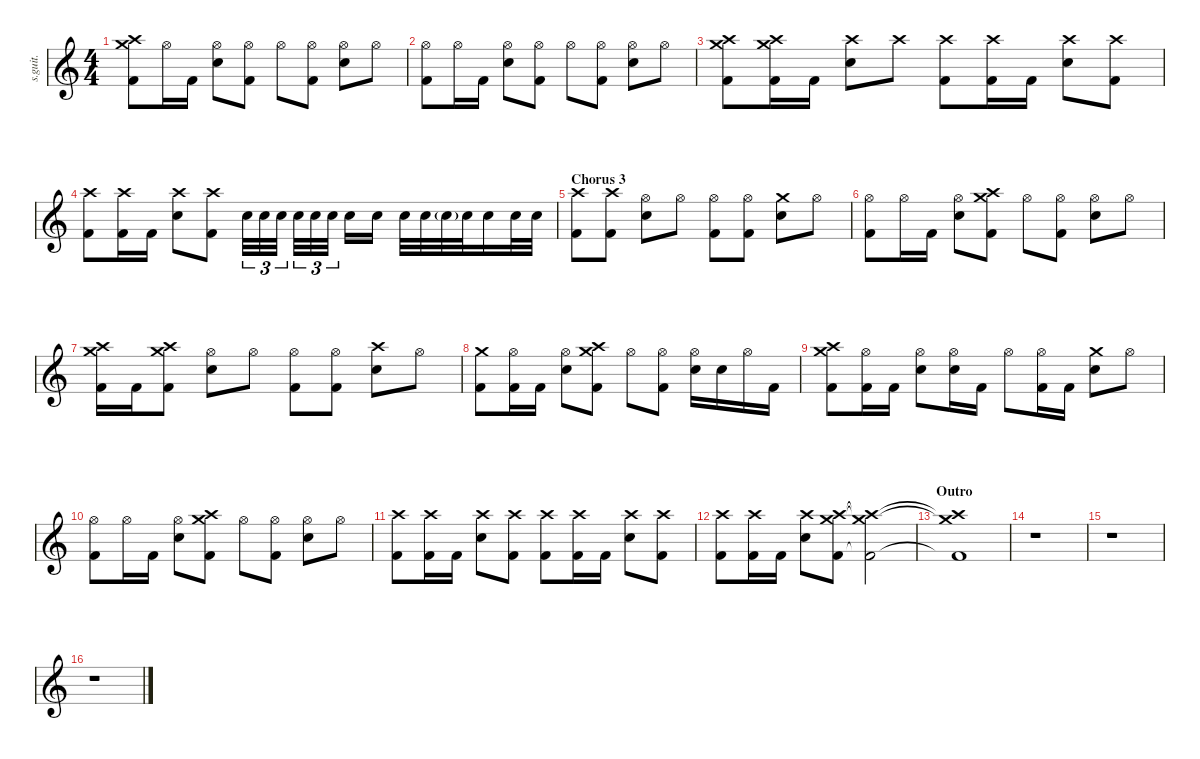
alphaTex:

\defaultSystemsLayout 4
\hideDynamics
\bracketExtendMode nobrackets
\track ("Drums (Pat Wilson)" "s.guit.") {instrument percussion}
\staff {score}
\articulation defaults
\ts (4 4)
\tempo (76 hide)
\clef g2
\ks c
("Crash high (hit)" "Crash medium (hit)" "Kick (hit) 2").8{lyrics (0 "") lyrics (1 "") lyrics (2 "") lyrics (3 "") lyrics (4 "") lyrics (5 "") lyrics (6 "") lyrics (7 "") lyrics (8 "") lyrics (9 "") dy f} "Hi-Hat (open)".16{lyrics (0 "") lyrics (1 "") lyrics (2 "") lyrics (3 "") lyrics (4 "") lyrics (5 "") lyrics (6 "") lyrics (7 "") lyrics (8 "") lyrics (9 "")} "Kick (hit) 2".16{lyrics (0 "") lyrics (1 "") lyrics (2 "") lyrics (3 "") lyrics (4 "") lyrics (5 "") lyrics (6 "") lyrics (7 "") lyrics (8 "") lyrics (9 "")} ("Hi-Hat (open)" "Snare (hit) 2").8{lyrics (0 "") lyrics (1 "") lyrics (2 "") lyrics (3 "") lyrics (4 "") lyrics (5 "") lyrics (6 "") lyrics (7 "") lyrics (8 "") lyrics (9 "")} ("Hi-Hat (open)" "Kick (hit) 2").8{lyrics (0 "") lyrics (1 "") lyrics (2 "") lyrics (3 "") lyrics (4 "") lyrics (5 "") lyrics (6 "") lyrics (7 "") lyrics (8 "") lyrics (9 "")} "Hi-Hat (open)".8{lyrics (0 "") lyrics (1 "") lyrics (2 "") lyrics (3 "") lyrics (4 "") lyrics (5 "") lyrics (6 "") lyrics (7 "") lyrics (8 "") lyrics (9 "")} ("Hi-Hat (open)" "Kick (hit) 2").8{lyrics (0 "") lyrics (1 "") lyrics (2 "") lyrics (3 "") lyrics (4 "") lyrics (5 "") lyrics (6 "") lyrics (7 "") lyrics (8 "") lyrics (9 "")} ("Hi-Hat (open)" "Snare (hit) 2").8{lyrics (0 "") lyrics (1 "") lyrics (2 "") lyrics (3 "") lyrics (4 "") lyrics (5 "") lyrics (6 "") lyrics (7 "") lyrics (8 "") lyrics (9 "")} "Hi-Hat (open)".8{lyrics (0 "") lyrics (1 "") lyrics (2 "") lyrics (3 "") lyrics (4 "") lyrics (5 "") lyrics (6 "") lyrics (7 "") lyrics (8 "") lyrics (9 "")} |
("Hi-Hat (open)" "Kick (hit) 2").8{lyrics (0 "") lyrics (1 "") lyrics (2 "") lyrics (3 "") lyrics (4 "") lyrics (5 "") lyrics (6 "") lyrics (7 "") lyrics (8 "") lyrics (9 "")} "Hi-Hat (open)".16{lyrics (0 "") lyrics (1 "") lyrics (2 "") lyrics (3 "") lyrics (4 "") lyrics (5 "") lyrics (6 "") lyrics (7 "") lyrics (8 "") lyrics (9 "")} "Kick (hit) 2".16{lyrics (0 "") lyrics (1 "") lyrics (2 "") lyrics (3 "") lyrics (4 "") lyrics (5 "") lyrics (6 "") lyrics (7 "") lyrics (8 "") lyrics (9 "")} ("Hi-Hat (open)" "Snare (hit) 2").8{lyrics (0 "") lyrics (1 "") lyrics (2 "") lyrics (3 "") lyrics (4 "") lyrics (5 "") lyrics (6 "") lyrics (7 "") lyrics (8 "") lyrics (9 "")} ("Hi-Hat (open)" "Kick (hit) 2").8{lyrics (0 "") lyrics (1 "") lyrics (2 "") lyrics (3 "") lyrics (4 "") lyrics (5 "") lyrics (6 "") lyrics (7 "") lyrics (8 "") lyrics (9 "")} "Hi-Hat (open)".8{lyrics (0 "") lyrics (1 "") lyrics (2 "") lyrics (3 "") lyrics (4 "") lyrics (5 "") lyrics (6 "") lyrics (7 "") lyrics (8 "") lyrics (9 "")} ("Hi-Hat (open)" "Kick (hit) 2").8{lyrics (0 "") lyrics (1 "") lyrics (2 "") lyrics (3 "") lyrics (4 "") lyrics (5 "") lyrics (6 "") lyrics (7 "") lyrics (8 "") lyrics (9 "")} ("Hi-Hat (open)" "Snare (hit) 2").8{lyrics (0 "") lyrics (1 "") lyrics (2 "") lyrics (3 "") lyrics (4 "") lyrics (5 "") lyrics (6 "") lyrics (7 "") lyrics (8 "") lyrics (9 "")} "Hi-Hat (open)".8{lyrics (0 "") lyrics (1 "") lyrics (2 "") lyrics (3 "") lyrics (4 "") lyrics (5 "") lyrics (6 "") lyrics (7 "") lyrics (8 "") lyrics (9 "")} |
("Crash high (hit)" "Crash medium (hit)" "Kick (hit) 2").8{lyrics (0 "") lyrics (1 "") lyrics (2 "") lyrics (3 "") lyrics (4 "") lyrics (5 "") lyrics (6 "") lyrics (7 "") lyrics (8 "") lyrics (9 "")} ("Crash high (hit)" "Crash medium (hit)" "Kick (hit) 2").16{lyrics (0 "") lyrics (1 "") lyrics (2 "") lyrics (3 "") lyrics (4 "") lyrics (5 "") lyrics (6 "") lyrics (7 "") lyrics (8 "") lyrics (9 "")} "Kick (hit) 2".16{lyrics (0 "") lyrics (1 "") lyrics (2 "") lyrics (3 "") lyrics (4 "") lyrics (5 "") lyrics (6 "") lyrics (7 "") lyrics (8 "") lyrics (9 "")} ("Crash high (hit)" "Snare (hit) 2").8{lyrics (0 "") lyrics (1 "") lyrics (2 "") lyrics (3 "") lyrics (4 "") lyrics (5 "") lyrics (6 "") lyrics (7 "") lyrics (8 "") lyrics (9 "")} "Crash high (hit)".8{lyrics (0 "") lyrics (1 "") lyrics (2 "") lyrics (3 "") lyrics (4 "") lyrics (5 "") lyrics (6 "") lyrics (7 "") lyrics (8 "") lyrics (9 "")} ("Crash high (hit)" "Kick (hit) 2").8{lyrics (0 "") lyrics (1 "") lyrics (2 "") lyrics (3 "") lyrics (4 "") lyrics (5 "") lyrics (6 "") lyrics (7 "") lyrics (8 "") lyrics (9 "")} ("Crash high (hit)" "Kick (hit) 2").16{lyrics (0 "") lyrics (1 "") lyrics (2 "") lyrics (3 "") lyrics (4 "") lyrics (5 "") lyrics (6 "") lyrics (7 "") lyrics (8 "") lyrics (9 "")} "Kick (hit) 2".16{lyrics (0 "") lyrics (1 "") lyrics (2 "") lyrics (3 "") lyrics (4 "") lyrics (5 "") lyrics (6 "") lyrics (7 "") lyrics (8 "") lyrics (9 "")} ("Crash high (hit)" "Snare (hit) 2").8{lyrics (0 "") lyrics (1 "") lyrics (2 "") lyrics (3 "") lyrics (4 "") lyrics (5 "") lyrics (6 "") lyrics (7 "") lyrics (8 "") lyrics (9 "")} ("Crash high (hit)" "Kick (hit) 2").8{lyrics (0 "") lyrics (1 "") lyrics (2 "") lyrics (3 "") lyrics (4 "") lyrics (5 "") lyrics (6 "") lyrics (7 "") lyrics (8 "") lyrics (9 "")} |
("Crash high (hit)" "Kick (hit) 2").8{lyrics (0 "") lyrics (1 "") lyrics (2 "") lyrics (3 "") lyrics (4 "") lyrics (5 "") lyrics (6 "") lyrics (7 "") lyrics (8 "") lyrics (9 "")} ("Crash high (hit)" "Kick (hit) 2").16{lyrics (0 "") lyrics (1 "") lyrics (2 "") lyrics (3 "") lyrics (4 "") lyrics (5 "") lyrics (6 "") lyrics (7 "") lyrics (8 "") lyrics (9 "")} "Kick (hit) 2".16{lyrics (0 "") lyrics (1 "") lyrics (2 "") lyrics (3 "") lyrics (4 "") lyrics (5 "") lyrics (6 "") lyrics (7 "") lyrics (8 "") lyrics (9 "")} ("Crash high (hit)" "Snare (hit) 2").8{lyrics (0 "") lyrics (1 "") lyrics (2 "") lyrics (3 "") lyrics (4 "") lyrics (5 "") lyrics (6 "") lyrics (7 "") lyrics (8 "") lyrics (9 "")} ("Crash high (hit)" "Kick (hit) 2").8{lyrics (0 "") lyrics (1 "") lyrics (2 "") lyrics (3 "") lyrics (4 "") lyrics (5 "") lyrics (6 "") lyrics (7 "") lyrics (8 "") lyrics (9 "")} "Snare (hit) 2".32{tu (3 2) lyrics (0 "") lyrics (1 "") lyrics (2 "") lyrics (3 "") lyrics (4 "") lyrics (5 "") lyrics (6 "") lyrics (7 "") lyrics (8 "") lyrics (9 "") dy ff} "Snare (hit) 2".32{tu (3 2) lyrics (0 "") lyrics (1 "") lyrics (2 "") lyrics (3 "") lyrics (4 "") lyrics (5 "") lyrics (6 "") lyrics (7 "") lyrics (8 "") lyrics (9 "")} "Snare (hit) 2".32{tu (3 2) lyrics (0 "") lyrics (1 "") lyrics (2 "") lyrics (3 "") lyrics (4 "") lyrics (5 "") lyrics (6 "") lyrics (7 "") lyrics (8 "") lyrics (9 "")} "Snare (hit) 2".32{tu (3 2) lyrics (0 "") lyrics (1 "") lyrics (2 "") lyrics (3 "") lyrics (4 "") lyrics (5 "") lyrics (6 "") lyrics (7 "") lyrics (8 "") lyrics (9 "")} "Snare (hit) 2".32{tu (3 2) lyrics (0 "") lyrics (1 "") lyrics (2 "") lyrics (3 "") lyrics (4 "") lyrics (5 "") lyrics (6 "") lyrics (7 "") lyrics (8 "") lyrics (9 "")} "Snare (hit) 2".32{tu (3 2) lyrics (0 "") lyrics (1 "") lyrics (2 "") lyrics (3 "") lyrics (4 "") lyrics (5 "") lyrics (6 "") lyrics (7 "") lyrics (8 "") lyrics (9 "")} "Snare (hit) 2".16{lyrics (0 "") lyrics (1 "") lyrics (2 "") lyrics (3 "") lyrics (4 "") lyrics (5 "") lyrics (6 "") lyrics (7 "") lyrics (8 "") lyrics (9 "")} "Snare (hit) 2".16{lyrics (0 "") lyrics (1 "") lyrics (2 "") lyrics (3 "") lyrics (4 "") lyrics (5 "") lyrics (6 "") lyrics (7 "") lyrics (8 "") lyrics (9 "")} "Snare (hit) 2".32{lyrics (0 "") lyrics (1 "") lyrics (2 "") lyrics (3 "") lyrics (4 "") lyrics (5 "") lyrics (6 "") lyrics (7 "") lyrics (8 "") lyrics (9 "")} "Snare (hit) 2".32{lyrics (0 "") lyrics (1 "") lyrics (2 "") lyrics (3 "") lyrics (4 "") lyrics (5 "") lyrics (6 "") lyrics (7 "") lyrics (8 "") lyrics (9 "")} "Snare (hit) 2"{g}.32{lyrics (0 "") lyrics (1 "") lyrics (2 "") lyrics (3 "") lyrics (4 "") lyrics (5 "") lyrics (6 "") lyrics (7 "") lyrics (8 "") lyrics (9 "") dy mp} "Snare (hit) 2".32{lyrics (0 "") lyrics (1 "") lyrics (2 "") lyrics (3 "") lyrics (4 "") lyrics (5 "") lyrics (6 "") lyrics (7 "") lyrics (8 "") lyrics (9 "") dy ff} "Snare (hit) 2".16{lyrics (0 "") lyrics (1 "") lyrics (2 "") lyrics (3 "") lyrics (4 "") lyrics (5 "") lyrics (6 "") lyrics (7 "") lyrics (8 "") lyrics (9 "")} "Snare (hit) 2".32{lyrics (0 "") lyrics (1 "") lyrics (2 "") lyrics (3 "") lyrics (4 "") lyrics (5 "") lyrics (6 "") lyrics (7 "") lyrics (8 "") lyrics (9 "")} "Snare (hit) 2".32{lyrics (0 "") lyrics (1 "") lyrics (2 "") lyrics (3 "") lyrics (4 "") lyrics (5 "") lyrics (6 "") lyrics (7 "") lyrics (8 "") lyrics (9 "")} |
\section ("" "Chorus 3")
("Crash high (hit)" "Kick (hit) 2").8{lyrics (0 "") lyrics (1 "") lyrics (2 "") lyrics (3 "") lyrics (4 "") lyrics (5 "") lyrics (6 "") lyrics (7 "") lyrics (8 "") lyrics (9 "") dy f} ("Crash high (hit)" "Kick (hit) 2").8{lyrics (0 "") lyrics (1 "") lyrics (2 "") lyrics (3 "") lyrics (4 "") lyrics (5 "") lyrics (6 "") lyrics (7 "") lyrics (8 "") lyrics (9 "")} ("Hi-Hat (open)" "Snare (hit) 2").8{lyrics (0 "") lyrics (1 "") lyrics (2 "") lyrics (3 "") lyrics (4 "") lyrics (5 "") lyrics (6 "") lyrics (7 "") lyrics (8 "") lyrics (9 "")} "Hi-Hat (open)".8{lyrics (0 "") lyrics (1 "") lyrics (2 "") lyrics (3 "") lyrics (4 "") lyrics (5 "") lyrics (6 "") lyrics (7 "") lyrics (8 "") lyrics (9 "")} ("Hi-Hat (open)" "Kick (hit) 2").8{lyrics (0 "") lyrics (1 "") lyrics (2 "") lyrics (3 "") lyrics (4 "") lyrics (5 "") lyrics (6 "") lyrics (7 "") lyrics (8 "") lyrics (9 "")} ("Hi-Hat (open)" "Kick (hit) 2").8{lyrics (0 "") lyrics (1 "") lyrics (2 "") lyrics (3 "") lyrics (4 "") lyrics (5 "") lyrics (6 "") lyrics (7 "") lyrics (8 "") lyrics (9 "")} ("Crash medium (hit)" "Snare (hit) 2").8{lyrics (0 "") lyrics (1 "") lyrics (2 "") lyrics (3 "") lyrics (4 "") lyrics (5 "") lyrics (6 "") lyrics (7 "") lyrics (8 "") lyrics (9 "")} "Hi-Hat (open)".8{lyrics (0 "") lyrics (1 "") lyrics (2 "") lyrics (3 "") lyrics (4 "") lyrics (5 "") lyrics (6 "") lyrics (7 "") lyrics (8 "") lyrics (9 "")} |
("Hi-Hat (open)" "Kick (hit) 2").8{lyrics (0 "") lyrics (1 "") lyrics (2 "") lyrics (3 "") lyrics (4 "") lyrics (5 "") lyrics (6 "") lyrics (7 "") lyrics (8 "") lyrics (9 "")} "Hi-Hat (open)".16{lyrics (0 "") lyrics (1 "") lyrics (2 "") lyrics (3 "") lyrics (4 "") lyrics (5 "") lyrics (6 "") lyrics (7 "") lyrics (8 "") lyrics (9 "")} "Kick (hit) 2".16{lyrics (0 "") lyrics (1 "") lyrics (2 "") lyrics (3 "") lyrics (4 "") lyrics (5 "") lyrics (6 "") lyrics (7 "") lyrics (8 "") lyrics (9 "")} ("Hi-Hat (open)" "Snare (hit) 2").8{lyrics (0 "") lyrics (1 "") lyrics (2 "") lyrics (3 "") lyrics (4 "") lyrics (5 "") lyrics (6 "") lyrics (7 "") lyrics (8 "") lyrics (9 "")} ("Crash high (hit)" "Crash medium (hit)" "Kick (hit) 2").8{lyrics (0 "") lyrics (1 "") lyrics (2 "") lyrics (3 "") lyrics (4 "") lyrics (5 "") lyrics (6 "") lyrics (7 "") lyrics (8 "") lyrics (9 "")} "Hi-Hat (open)".8{lyrics (0 "") lyrics (1 "") lyrics (2 "") lyrics (3 "") lyrics (4 "") lyrics (5 "") lyrics (6 "") lyrics (7 "") lyrics (8 "") lyrics (9 "")} ("Hi-Hat (open)" "Kick (hit) 2").8{lyrics (0 "") lyrics (1 "") lyrics (2 "") lyrics (3 "") lyrics (4 "") lyrics (5 "") lyrics (6 "") lyrics (7 "") lyrics (8 "") lyrics (9 "")} ("Hi-Hat (open)" "Snare (hit) 2").8{lyrics (0 "") lyrics (1 "") lyrics (2 "") lyrics (3 "") lyrics (4 "") lyrics (5 "") lyrics (6 "") lyrics (7 "") lyrics (8 "") lyrics (9 "")} "Hi-Hat (open)".8{lyrics (0 "") lyrics (1 "") lyrics (2 "") lyrics (3 "") lyrics (4 "") lyrics (5 "") lyrics (6 "") lyrics (7 "") lyrics (8 "") lyrics (9 "")} |
("Crash high (hit)" "Crash medium (hit)" "Kick (hit) 2").16{lyrics (0 "") lyrics (1 "") lyrics (2 "") lyrics (3 "") lyrics (4 "") lyrics (5 "") lyrics (6 "") lyrics (7 "") lyrics (8 "") lyrics (9 "")} "Kick (hit) 2".16{lyrics (0 "") lyrics (1 "") lyrics (2 "") lyrics (3 "") lyrics (4 "") lyrics (5 "") lyrics (6 "") lyrics (7 "") lyrics (8 "") lyrics (9 "")} ("Crash high (hit)" "Crash medium (hit)" "Kick (hit) 2").8{lyrics (0 "") lyrics (1 "") lyrics (2 "") lyrics (3 "") lyrics (4 "") lyrics (5 "") lyrics (6 "") lyrics (7 "") lyrics (8 "") lyrics (9 "")} ("Hi-Hat (open)" "Snare (hit) 2").8{lyrics (0 "") lyrics (1 "") lyrics (2 "") lyrics (3 "") lyrics (4 "") lyrics (5 "") lyrics (6 "") lyrics (7 "") lyrics (8 "") lyrics (9 "")} "Hi-Hat (open)".8{lyrics (0 "") lyrics (1 "") lyrics (2 "") lyrics (3 "") lyrics (4 "") lyrics (5 "") lyrics (6 "") lyrics (7 "") lyrics (8 "") lyrics (9 "")} ("Hi-Hat (open)" "Kick (hit) 2").8{lyrics (0 "") lyrics (1 "") lyrics (2 "") lyrics (3 "") lyrics (4 "") lyrics (5 "") lyrics (6 "") lyrics (7 "") lyrics (8 "") lyrics (9 "")} ("Hi-Hat (open)" "Kick (hit) 2").8{lyrics (0 "") lyrics (1 "") lyrics (2 "") lyrics (3 "") lyrics (4 "") lyrics (5 "") lyrics (6 "") lyrics (7 "") lyrics (8 "") lyrics (9 "")} ("Crash high (hit)" "Snare (hit) 2").8{lyrics (0 "") lyrics (1 "") lyrics (2 "") lyrics (3 "") lyrics (4 "") lyrics (5 "") lyrics (6 "") lyrics (7 "") lyrics (8 "") lyrics (9 "")} "Hi-Hat (open)".8{lyrics (0 "") lyrics (1 "") lyrics (2 "") lyrics (3 "") lyrics (4 "") lyrics (5 "") lyrics (6 "") lyrics (7 "") lyrics (8 "") lyrics (9 "")} |
("Crash medium (hit)" "Kick (hit) 2").8{lyrics (0 "") lyrics (1 "") lyrics (2 "") lyrics (3 "") lyrics (4 "") lyrics (5 "") lyrics (6 "") lyrics (7 "") lyrics (8 "") lyrics (9 "")} ("Hi-Hat (open)" "Kick (hit) 2").16{lyrics (0 "") lyrics (1 "") lyrics (2 "") lyrics (3 "") lyrics (4 "") lyrics (5 "") lyrics (6 "") lyrics (7 "") lyrics (8 "") lyrics (9 "")} "Kick (hit) 2".16{lyrics (0 "") lyrics (1 "") lyrics (2 "") lyrics (3 "") lyrics (4 "") lyrics (5 "") lyrics (6 "") lyrics (7 "") lyrics (8 "") lyrics (9 "")} ("Hi-Hat (open)" "Snare (hit) 2").8{lyrics (0 "") lyrics (1 "") lyrics (2 "") lyrics (3 "") lyrics (4 "") lyrics (5 "") lyrics (6 "") lyrics (7 "") lyrics (8 "") lyrics (9 "")} ("Crash high (hit)" "Crash medium (hit)" "Kick (hit) 2").8{lyrics (0 "") lyrics (1 "") lyrics (2 "") lyrics (3 "") lyrics (4 "") lyrics (5 "") lyrics (6 "") lyrics (7 "") lyrics (8 "") lyrics (9 "")} "Hi-Hat (open)".8{lyrics (0 "") lyrics (1 "") lyrics (2 "") lyrics (3 "") lyrics (4 "") lyrics (5 "") lyrics (6 "") lyrics (7 "") lyrics (8 "") lyrics (9 "")} ("Hi-Hat (open)" "Kick (hit) 2").8{lyrics (0 "") lyrics (1 "") lyrics (2 "") lyrics (3 "") lyrics (4 "") lyrics (5 "") lyrics (6 "") lyrics (7 "") lyrics (8 "") lyrics (9 "")} ("Hi-Hat (open)" "Snare (hit) 2").16{lyrics (0 "") lyrics (1 "") lyrics (2 "") lyrics (3 "") lyrics (4 "") lyrics (5 "") lyrics (6 "") lyrics (7 "") lyrics (8 "") lyrics (9 "")} "Snare (hit) 2".16{lyrics (0 "") lyrics (1 "") lyrics (2 "") lyrics (3 "") lyrics (4 "") lyrics (5 "") lyrics (6 "") lyrics (7 "") lyrics (8 "") lyrics (9 "")} "Hi-Hat (open)".16{lyrics (0 "") lyrics (1 "") lyrics (2 "") lyrics (3 "") lyrics (4 "") lyrics (5 "") lyrics (6 "") lyrics (7 "") lyrics (8 "") lyrics (9 "")} "Kick (hit) 2".16{lyrics (0 "") lyrics (1 "") lyrics (2 "") lyrics (3 "") lyrics (4 "") lyrics (5 "") lyrics (6 "") lyrics (7 "") lyrics (8 "") lyrics (9 "")} |
("Crash high (hit)" "Crash medium (hit)" "Kick (hit) 2").8{lyrics (0 "") lyrics (1 "") lyrics (2 "") lyrics (3 "") lyrics (4 "") lyrics (5 "") lyrics (6 "") lyrics (7 "") lyrics (8 "") lyrics (9 "")} ("Hi-Hat (open)" "Kick (hit) 2").16{lyrics (0 "") lyrics (1 "") lyrics (2 "") lyrics (3 "") lyrics (4 "") lyrics (5 "") lyrics (6 "") lyrics (7 "") lyrics (8 "") lyrics (9 "")} "Kick (hit) 2".16{lyrics (0 "") lyrics (1 "") lyrics (2 "") lyrics (3 "") lyrics (4 "") lyrics (5 "") lyrics (6 "") lyrics (7 "") lyrics (8 "") lyrics (9 "")} ("Hi-Hat (open)" "Snare (hit) 2").8{lyrics (0 "") lyrics (1 "") lyrics (2 "") lyrics (3 "") lyrics (4 "") lyrics (5 "") lyrics (6 "") lyrics (7 "") lyrics (8 "") lyrics (9 "")} ("Hi-Hat (open)" "Snare (hit) 2").16{lyrics (0 "") lyrics (1 "") lyrics (2 "") lyrics (3 "") lyrics (4 "") lyrics (5 "") lyrics (6 "") lyrics (7 "") lyrics (8 "") lyrics (9 "")} "Kick (hit) 2".16{lyrics (0 "") lyrics (1 "") lyrics (2 "") lyrics (3 "") lyrics (4 "") lyrics (5 "") lyrics (6 "") lyrics (7 "") lyrics (8 "") lyrics (9 "")} "Hi-Hat (open)".8{lyrics (0 "") lyrics (1 "") lyrics (2 "") lyrics (3 "") lyrics (4 "") lyrics (5 "") lyrics (6 "") lyrics (7 "") lyrics (8 "") lyrics (9 "")} ("Hi-Hat (open)" "Kick (hit) 2").16{lyrics (0 "") lyrics (1 "") lyrics (2 "") lyrics (3 "") lyrics (4 "") lyrics (5 "") lyrics (6 "") lyrics (7 "") lyrics (8 "") lyrics (9 "")} "Kick (hit) 2".16{lyrics (0 "") lyrics (1 "") lyrics (2 "") lyrics (3 "") lyrics (4 "") lyrics (5 "") lyrics (6 "") lyrics (7 "") lyrics (8 "") lyrics (9 "")} ("Crash medium (hit)" "Snare (hit) 2").8{lyrics (0 "") lyrics (1 "") lyrics (2 "") lyrics (3 "") lyrics (4 "") lyrics (5 "") lyrics (6 "") lyrics (7 "") lyrics (8 "") lyrics (9 "")} "Hi-Hat (open)".8{lyrics (0 "") lyrics (1 "") lyrics (2 "") lyrics (3 "") lyrics (4 "") lyrics (5 "") lyrics (6 "") lyrics (7 "") lyrics (8 "") lyrics (9 "")} |
("Hi-Hat (open)" "Kick (hit) 2").8{lyrics (0 "") lyrics (1 "") lyrics (2 "") lyrics (3 "") lyrics (4 "") lyrics (5 "") lyrics (6 "") lyrics (7 "") lyrics (8 "") lyrics (9 "")} "Hi-Hat (open)".16{lyrics (0 "") lyrics (1 "") lyrics (2 "") lyrics (3 "") lyrics (4 "") lyrics (5 "") lyrics (6 "") lyrics (7 "") lyrics (8 "") lyrics (9 "")} "Kick (hit) 2".16{lyrics (0 "") lyrics (1 "") lyrics (2 "") lyrics (3 "") lyrics (4 "") lyrics (5 "") lyrics (6 "") lyrics (7 "") lyrics (8 "") lyrics (9 "")} ("Hi-Hat (open)" "Snare (hit) 2").8{lyrics (0 "") lyrics (1 "") lyrics (2 "") lyrics (3 "") lyrics (4 "") lyrics (5 "") lyrics (6 "") lyrics (7 "") lyrics (8 "") lyrics (9 "")} ("Crash high (hit)" "Crash medium (hit)" "Kick (hit) 2").8{lyrics (0 "") lyrics (1 "") lyrics (2 "") lyrics (3 "") lyrics (4 "") lyrics (5 "") lyrics (6 "") lyrics (7 "") lyrics (8 "") lyrics (9 "")} "Hi-Hat (open)".8{lyrics (0 "") lyrics (1 "") lyrics (2 "") lyrics (3 "") lyrics (4 "") lyrics (5 "") lyrics (6 "") lyrics (7 "") lyrics (8 "") lyrics (9 "")} ("Hi-Hat (open)" "Kick (hit) 2").8{lyrics (0 "") lyrics (1 "") lyrics (2 "") lyrics (3 "") lyrics (4 "") lyrics (5 "") lyrics (6 "") lyrics (7 "") lyrics (8 "") lyrics (9 "")} ("Hi-Hat (open)" "Snare (hit) 2").8{lyrics (0 "") lyrics (1 "") lyrics (2 "") lyrics (3 "") lyrics (4 "") lyrics (5 "") lyrics (6 "") lyrics (7 "") lyrics (8 "") lyrics (9 "")} "Hi-Hat (open)".8{lyrics (0 "") lyrics (1 "") lyrics (2 "") lyrics (3 "") lyrics (4 "") lyrics (5 "") lyrics (6 "") lyrics (7 "") lyrics (8 "") lyrics (9 "")} |
("Crash high (hit)" "Kick (hit) 2").8{lyrics (0 "") lyrics (1 "") lyrics (2 "") lyrics (3 "") lyrics (4 "") lyrics (5 "") lyrics (6 "") lyrics (7 "") lyrics (8 "") lyrics (9 "")} ("Crash high (hit)" "Kick (hit) 2").16{lyrics (0 "") lyrics (1 "") lyrics (2 "") lyrics (3 "") lyrics (4 "") lyrics (5 "") lyrics (6 "") lyrics (7 "") lyrics (8 "") lyrics (9 "")} "Kick (hit) 2".16{lyrics (0 "") lyrics (1 "") lyrics (2 "") lyrics (3 "") lyrics (4 "") lyrics (5 "") lyrics (6 "") lyrics (7 "") lyrics (8 "") lyrics (9 "")} ("Crash high (hit)" "Snare (hit) 2").8{lyrics (0 "") lyrics (1 "") lyrics (2 "") lyrics (3 "") lyrics (4 "") lyrics (5 "") lyrics (6 "") lyrics (7 "") lyrics (8 "") lyrics (9 "")} ("Crash high (hit)" "Kick (hit) 2").8{lyrics (0 "") lyrics (1 "") lyrics (2 "") lyrics (3 "") lyrics (4 "") lyrics (5 "") lyrics (6 "") lyrics (7 "") lyrics (8 "") lyrics (9 "")} ("Crash high (hit)" "Kick (hit) 2").8{lyrics (0 "") lyrics (1 "") lyrics (2 "") lyrics (3 "") lyrics (4 "") lyrics (5 "") lyrics (6 "") lyrics (7 "") lyrics (8 "") lyrics (9 "")} ("Crash high (hit)" "Kick (hit) 2").16{lyrics (0 "") lyrics (1 "") lyrics (2 "") lyrics (3 "") lyrics (4 "") lyrics (5 "") lyrics (6 "") lyrics (7 "") lyrics (8 "") lyrics (9 "")} "Kick (hit) 2".16{lyrics (0 "") lyrics (1 "") lyrics (2 "") lyrics (3 "") lyrics (4 "") lyrics (5 "") lyrics (6 "") lyrics (7 "") lyrics (8 "") lyrics (9 "")} ("Crash high (hit)" "Snare (hit) 2").8{lyrics (0 "") lyrics (1 "") lyrics (2 "") lyrics (3 "") lyrics (4 "") lyrics (5 "") lyrics (6 "") lyrics (7 "") lyrics (8 "") lyrics (9 "")} ("Crash high (hit)" "Kick (hit) 2").8{lyrics (0 "") lyrics (1 "") lyrics (2 "") lyrics (3 "") lyrics (4 "") lyrics (5 "") lyrics (6 "") lyrics (7 "") lyrics (8 "") lyrics (9 "")} |
("Crash high (hit)" "Kick (hit) 2").8{lyrics (0 "") lyrics (1 "") lyrics (2 "") lyrics (3 "") lyrics (4 "") lyrics (5 "") lyrics (6 "") lyrics (7 "") lyrics (8 "") lyrics (9 "")} ("Crash high (hit)" "Kick (hit) 2").16{lyrics (0 "") lyrics (1 "") lyrics (2 "") lyrics (3 "") lyrics (4 "") lyrics (5 "") lyrics (6 "") lyrics (7 "") lyrics (8 "") lyrics (9 "")} "Kick (hit) 2".16{lyrics (0 "") lyrics (1 "") lyrics (2 "") lyrics (3 "") lyrics (4 "") lyrics (5 "") lyrics (6 "") lyrics (7 "") lyrics (8 "") lyrics (9 "")} ("Crash high (hit)" "Snare (hit) 2").8{lyrics (0 "") lyrics (1 "") lyrics (2 "") lyrics (3 "") lyrics (4 "") lyrics (5 "") lyrics (6 "") lyrics (7 "") lyrics (8 "") lyrics (9 "")} ("Crash high (hit)" "Crash medium (hit)" "Kick (hit) 2").8{lyrics (0 "") lyrics (1 "") lyrics (2 "") lyrics (3 "") lyrics (4 "") lyrics (5 "") lyrics (6 "") lyrics (7 "") lyrics (8 "") lyrics (9 "")} ("Crash high (hit)"{t} "Crash medium (hit)"{t} "Kick (hit) 2"{t}).2{lyrics (0 "") lyrics (1 "") lyrics (2 "") lyrics (3 "") lyrics (4 "") lyrics (5 "") lyrics (6 "") lyrics (7 "") lyrics (8 "") lyrics (9 "")} |
\section ("" "Outro")
("Crash high (hit)"{t} "Crash medium (hit)"{t} "Kick (hit) 2"{t}).1{lyrics (0 "") lyrics (1 "") lyrics (2 "") lyrics (3 "") lyrics (4 "") lyrics (5 "") lyrics (6 "") lyrics (7 "") lyrics (8 "") lyrics (9 "")} |
r.1 |
r.1 |
r.1
